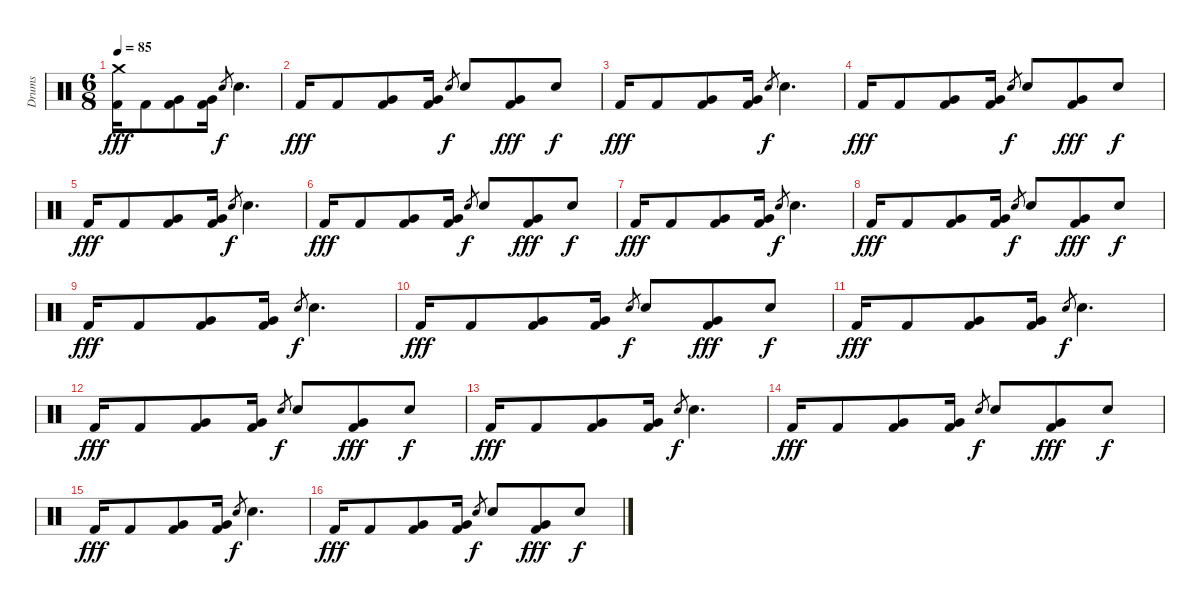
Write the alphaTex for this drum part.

\track ("Drums" "Drums") {instrument percussion}
\staff {score}
\articulation defaults
\ts (6 8)
\tempo 85
\clef neutral
\ks c
("Crash medium (hit)" "Kick (hit) 2").16{dy fff} "Kick (hit) 2".8 ("Very Low Tom (hit)" "Kick (hit) 2").8 ("Very Low Tom (hit)" "Kick (hit) 2").16 "Electric Snare (hit)".8{gr dy f} "Electric Snare (hit)".4{d} |
"Kick (hit) 2".16{dy fff} "Kick (hit) 2".8 ("Very Low Tom (hit)" "Kick (hit) 2").8 ("Very Low Tom (hit)" "Kick (hit) 2").16 "Electric Snare (hit)".8{gr dy f} "Electric Snare (hit)".8 ("Very Low Tom (hit)" "Kick (hit) 2").8{dy fff} "Electric Snare (hit)".8{dy f} |
"Kick (hit) 2".16{dy fff} "Kick (hit) 2".8 ("Very Low Tom (hit)" "Kick (hit) 2").8 ("Very Low Tom (hit)" "Kick (hit) 2").16 "Electric Snare (hit)".8{gr dy f} "Electric Snare (hit)".4{d} |
"Kick (hit) 2".16{dy fff} "Kick (hit) 2".8 ("Very Low Tom (hit)" "Kick (hit) 2").8 ("Very Low Tom (hit)" "Kick (hit) 2").16 "Electric Snare (hit)".8{gr dy f} "Electric Snare (hit)".8 ("Very Low Tom (hit)" "Kick (hit) 2").8{dy fff} "Electric Snare (hit)".8{dy f} |
"Kick (hit) 2".16{dy fff} "Kick (hit) 2".8 ("Very Low Tom (hit)" "Kick (hit) 2").8 ("Very Low Tom (hit)" "Kick (hit) 2").16 "Electric Snare (hit)".8{gr dy f} "Electric Snare (hit)".4{d} |
"Kick (hit) 2".16{dy fff} "Kick (hit) 2".8 ("Very Low Tom (hit)" "Kick (hit) 2").8 ("Very Low Tom (hit)" "Kick (hit) 2").16 "Electric Snare (hit)".8{gr dy f} "Electric Snare (hit)".8 ("Very Low Tom (hit)" "Kick (hit) 2").8{dy fff} "Electric Snare (hit)".8{dy f} |
"Kick (hit) 2".16{dy fff} "Kick (hit) 2".8 ("Very Low Tom (hit)" "Kick (hit) 2").8 ("Very Low Tom (hit)" "Kick (hit) 2").16 "Electric Snare (hit)".8{gr dy f} "Electric Snare (hit)".4{d} |
"Kick (hit) 2".16{dy fff} "Kick (hit) 2".8 ("Very Low Tom (hit)" "Kick (hit) 2").8 ("Very Low Tom (hit)" "Kick (hit) 2").16 "Electric Snare (hit)".8{gr dy f} "Electric Snare (hit)".8 ("Very Low Tom (hit)" "Kick (hit) 2").8{dy fff} "Electric Snare (hit)".8{dy f} |
"Kick (hit) 2".16{dy fff} "Kick (hit) 2".8 ("Very Low Tom (hit)" "Kick (hit) 2").8 ("Very Low Tom (hit)" "Kick (hit) 2").16 "Electric Snare (hit)".8{gr dy f} "Electric Snare (hit)".4{d} |
"Kick (hit) 2".16{dy fff} "Kick (hit) 2".8 ("Very Low Tom (hit)" "Kick (hit) 2").8 ("Very Low Tom (hit)" "Kick (hit) 2").16 "Electric Snare (hit)".8{gr dy f} "Electric Snare (hit)".8 ("Very Low Tom (hit)" "Kick (hit) 2").8{dy fff} "Electric Snare (hit)".8{dy f} |
"Kick (hit) 2".16{dy fff} "Kick (hit) 2".8 ("Very Low Tom (hit)" "Kick (hit) 2").8 ("Very Low Tom (hit)" "Kick (hit) 2").16 "Electric Snare (hit)".8{gr dy f} "Electric Snare (hit)".4{d} |
"Kick (hit) 2".16{dy fff} "Kick (hit) 2".8 ("Very Low Tom (hit)" "Kick (hit) 2").8 ("Very Low Tom (hit)" "Kick (hit) 2").16 "Electric Snare (hit)".8{gr dy f} "Electric Snare (hit)".8 ("Very Low Tom (hit)" "Kick (hit) 2").8{dy fff} "Electric Snare (hit)".8{dy f} |
"Kick (hit) 2".16{dy fff} "Kick (hit) 2".8 ("Very Low Tom (hit)" "Kick (hit) 2").8 ("Very Low Tom (hit)" "Kick (hit) 2").16 "Electric Snare (hit)".8{gr dy f} "Electric Snare (hit)".4{d} |
"Kick (hit) 2".16{dy fff} "Kick (hit) 2".8 ("Very Low Tom (hit)" "Kick (hit) 2").8 ("Very Low Tom (hit)" "Kick (hit) 2").16 "Electric Snare (hit)".8{gr dy f} "Electric Snare (hit)".8 ("Very Low Tom (hit)" "Kick (hit) 2").8{dy fff} "Electric Snare (hit)".8{dy f} |
"Kick (hit) 2".16{dy fff} "Kick (hit) 2".8 ("Very Low Tom (hit)" "Kick (hit) 2").8 ("Very Low Tom (hit)" "Kick (hit) 2").16 "Electric Snare (hit)".8{gr dy f} "Electric Snare (hit)".4{d} |
"Kick (hit) 2".16{dy fff} "Kick (hit) 2".8 ("Very Low Tom (hit)" "Kick (hit) 2").8 ("Very Low Tom (hit)" "Kick (hit) 2").16 "Electric Snare (hit)".8{gr dy f} "Electric Snare (hit)".8 ("Very Low Tom (hit)" "Kick (hit) 2").8{dy fff} "Electric Snare (hit)".8{dy f}
